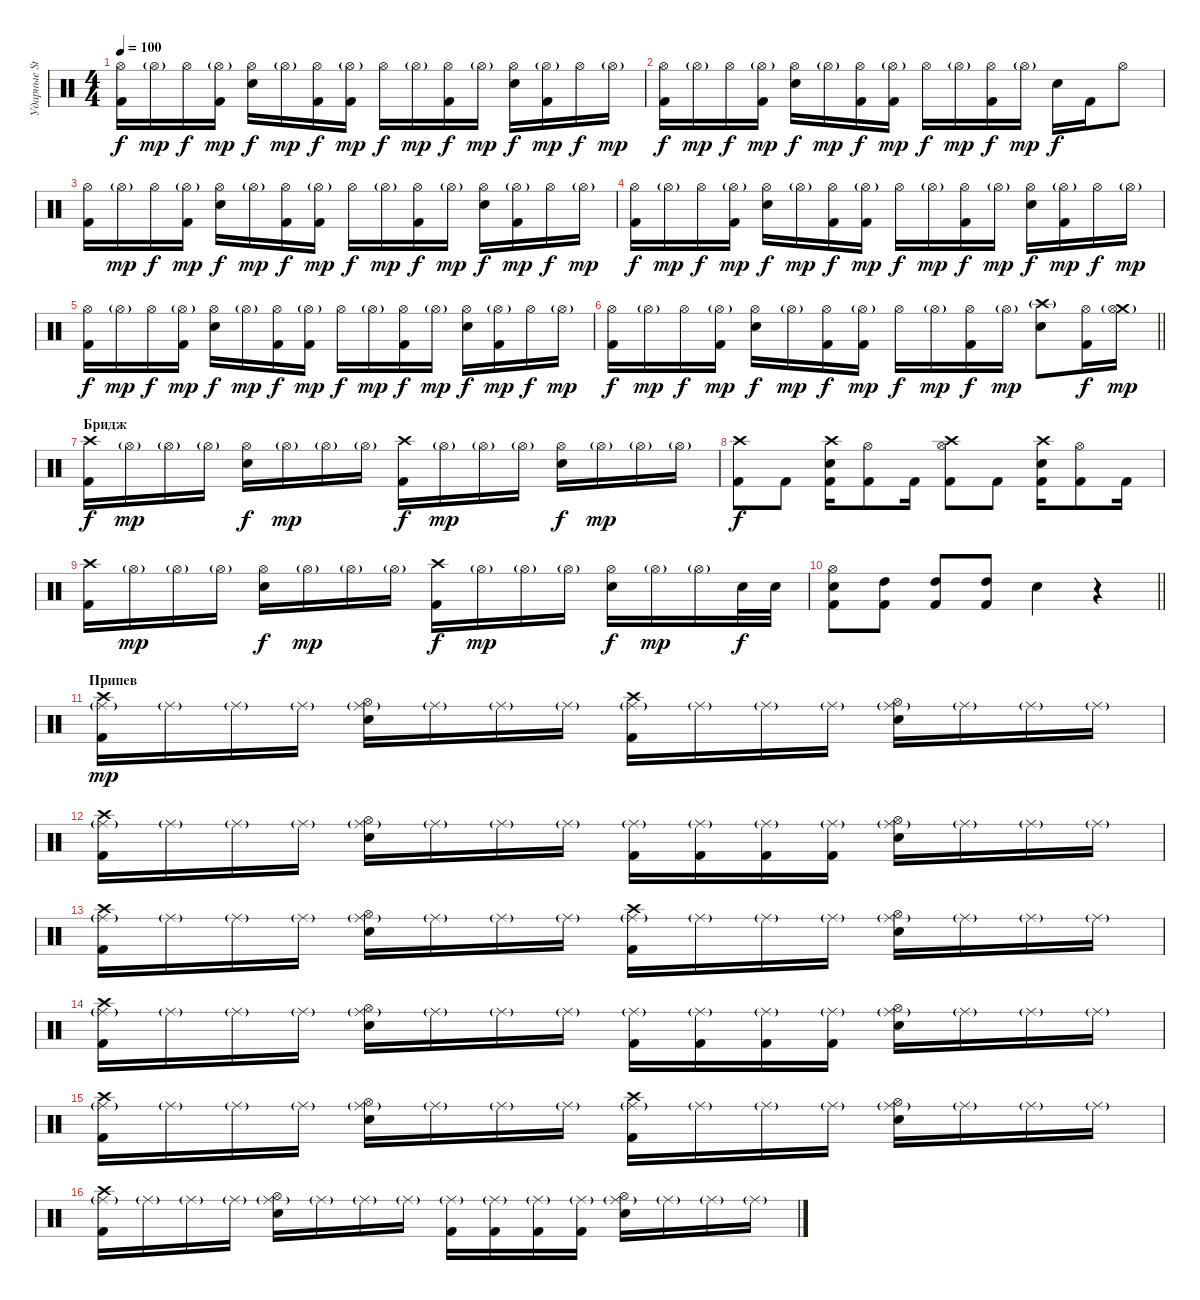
\track ("Ударные Stewart" "Ударные St") {instrument percussion}
\staff {score}
\articulation defaults
\ts (4 4)
\tempo 100
\clef neutral
\ks c
("Hi-Hat (open)" "Kick (hit) 2").16{dy f} "Hi-Hat (open)"{g}.16{dy mp} "Hi-Hat (open)".16{dy f} ("Hi-Hat (open)"{g} "Kick (hit) 2").16{dy mp} ("Hi-Hat (open)" "Electric Snare (hit)").16{dy f} "Hi-Hat (open)"{g}.16{dy mp} ("Hi-Hat (open)" "Kick (hit) 2").16{dy f} ("Hi-Hat (open)"{g} "Kick (hit) 2").16{dy mp} "Hi-Hat (open)".16{dy f} "Hi-Hat (open)"{g}.16{dy mp} ("Hi-Hat (open)" "Kick (hit) 2").16{dy f} "Hi-Hat (open)"{g}.16{dy mp} ("Hi-Hat (open)" "Electric Snare (hit)").16{dy f} ("Hi-Hat (open)"{g} "Kick (hit) 2").16{dy mp} "Hi-Hat (open)".16{dy f} "Hi-Hat (open)"{g}.16{dy mp} |
("Hi-Hat (open)" "Kick (hit) 2").16{dy f} "Hi-Hat (open)"{g}.16{dy mp} "Hi-Hat (open)".16{dy f} ("Hi-Hat (open)"{g} "Kick (hit) 2").16{dy mp} ("Hi-Hat (open)" "Electric Snare (hit)").16{dy f} "Hi-Hat (open)"{g}.16{dy mp} ("Hi-Hat (open)" "Kick (hit) 2").16{dy f} ("Hi-Hat (open)"{g} "Kick (hit) 2").16{dy mp} "Hi-Hat (open)".16{dy f} "Hi-Hat (open)"{g}.16{dy mp} ("Hi-Hat (open)" "Kick (hit) 2").16{dy f} "Hi-Hat (open)"{g}.16{dy mp} "Electric Snare (hit)".16{dy f} "Kick (hit) 2".16 "Hi-Hat (open)".8 |
("Hi-Hat (open)" "Kick (hit) 2").16 "Hi-Hat (open)"{g}.16{dy mp} "Hi-Hat (open)".16{dy f} ("Hi-Hat (open)"{g} "Kick (hit) 2").16{dy mp} ("Hi-Hat (open)" "Electric Snare (hit)").16{dy f} "Hi-Hat (open)"{g}.16{dy mp} ("Hi-Hat (open)" "Kick (hit) 2").16{dy f} ("Hi-Hat (open)"{g} "Kick (hit) 2").16{dy mp} "Hi-Hat (open)".16{dy f} "Hi-Hat (open)"{g}.16{dy mp} ("Hi-Hat (open)" "Kick (hit) 2").16{dy f} "Hi-Hat (open)"{g}.16{dy mp} ("Hi-Hat (open)" "Electric Snare (hit)").16{dy f} ("Hi-Hat (open)"{g} "Kick (hit) 2").16{dy mp} "Hi-Hat (open)".16{dy f} "Hi-Hat (open)"{g}.16{dy mp} |
("Hi-Hat (open)" "Kick (hit) 2").16{dy f} "Hi-Hat (open)"{g}.16{dy mp} "Hi-Hat (open)".16{dy f} ("Hi-Hat (open)"{g} "Kick (hit) 2").16{dy mp} ("Hi-Hat (open)" "Electric Snare (hit)").16{dy f} "Hi-Hat (open)"{g}.16{dy mp} ("Hi-Hat (open)" "Kick (hit) 2").16{dy f} ("Hi-Hat (open)"{g} "Kick (hit) 2").16{dy mp} "Hi-Hat (open)".16{dy f} "Hi-Hat (open)"{g}.16{dy mp} ("Hi-Hat (open)" "Kick (hit) 2").16{dy f} "Hi-Hat (open)"{g}.16{dy mp} ("Hi-Hat (open)" "Electric Snare (hit)").16{dy f} ("Hi-Hat (open)"{g} "Kick (hit) 2").16{dy mp} "Hi-Hat (open)".16{dy f} "Hi-Hat (open)"{g}.16{dy mp} |
("Hi-Hat (open)" "Kick (hit) 2").16{dy f} "Hi-Hat (open)"{g}.16{dy mp} "Hi-Hat (open)".16{dy f} ("Hi-Hat (open)"{g} "Kick (hit) 2").16{dy mp} ("Hi-Hat (open)" "Electric Snare (hit)").16{dy f} "Hi-Hat (open)"{g}.16{dy mp} ("Hi-Hat (open)" "Kick (hit) 2").16{dy f} ("Hi-Hat (open)"{g} "Kick (hit) 2").16{dy mp} "Hi-Hat (open)".16{dy f} "Hi-Hat (open)"{g}.16{dy mp} ("Hi-Hat (open)" "Kick (hit) 2").16{dy f} "Hi-Hat (open)"{g}.16{dy mp} ("Hi-Hat (open)" "Electric Snare (hit)").16{dy f} ("Hi-Hat (open)"{g} "Kick (hit) 2").16{dy mp} "Hi-Hat (open)".16{dy f} "Hi-Hat (open)"{g}.16{dy mp} |
\barLineRight lightlight
("Hi-Hat (open)" "Kick (hit) 2").16{dy f} "Hi-Hat (open)"{g}.16{dy mp} "Hi-Hat (open)".16{dy f} ("Hi-Hat (open)"{g} "Kick (hit) 2").16{dy mp} ("Hi-Hat (open)" "Electric Snare (hit)").16{dy f} "Hi-Hat (open)"{g}.16{dy mp} ("Hi-Hat (open)" "Kick (hit) 2").16{dy f} ("Hi-Hat (open)"{g} "Kick (hit) 2").16{dy mp} "Hi-Hat (open)".16{dy f} "Hi-Hat (open)"{g}.16{dy mp} ("Hi-Hat (open)" "Kick (hit) 2").16{dy f} "Hi-Hat (open)"{g}.16{dy mp} ("Crash high (hit)"{g} "Electric Snare (hit)").8 ("Hi-Hat (open)" "Kick (hit) 2").16{dy f} ("Crash medium (hit)"{g} "Hi-Hat (open)"{g}).16{dy mp} |
\section ("" "Бридж")
("Crash high (hit)" "Kick (hit) 2").16{dy f} "Hi-Hat (open)"{g}.16{dy mp} "Hi-Hat (open)"{g}.16 "Hi-Hat (open)"{g}.16 ("Hi-Hat (open)" "Electric Snare (hit)").16{dy f} "Hi-Hat (open)"{g}.16{dy mp} "Hi-Hat (open)"{g}.16 "Hi-Hat (open)"{g}.16 ("Crash high (hit)" "Kick (hit) 2").16{dy f} "Hi-Hat (open)"{g}.16{dy mp} "Hi-Hat (open)"{g}.16 "Hi-Hat (open)"{g}.16 ("Hi-Hat (open)" "Electric Snare (hit)").16{dy f} "Hi-Hat (open)"{g}.16{dy mp} "Hi-Hat (open)"{g}.16 "Hi-Hat (open)"{g}.16 |
("Crash high (hit)" "Kick (hit) 2").8{dy f} "Kick (hit) 2".8 ("Crash high (hit)" "Electric Snare (hit)" "Kick (hit) 2").16 ("Hi-Hat (open)" "Kick (hit) 2").8 "Kick (hit) 2".16 ("Crash high (hit)" "Hi-Hat (open)" "Kick (hit) 2").8 "Kick (hit) 2".8 ("Crash high (hit)" "Electric Snare (hit)" "Kick (hit) 2").16 ("Hi-Hat (open)" "Kick (hit) 2").8 "Kick (hit) 2".16 |
("Crash high (hit)" "Kick (hit) 2").16 "Hi-Hat (open)"{g}.16{dy mp} "Hi-Hat (open)"{g}.16 "Hi-Hat (open)"{g}.16 ("Hi-Hat (open)" "Electric Snare (hit)").16{dy f} "Hi-Hat (open)"{g}.16{dy mp} "Hi-Hat (open)"{g}.16 "Hi-Hat (open)"{g}.16 ("Crash high (hit)" "Kick (hit) 2").16{dy f} "Hi-Hat (open)"{g}.16{dy mp} "Hi-Hat (open)"{g}.16 "Hi-Hat (open)"{g}.16 ("Hi-Hat (open)" "Electric Snare (hit)").16{dy f} "Hi-Hat (open)"{g}.16{dy mp} "Hi-Hat (open)"{g}.16 "Electric Snare (hit)".32{dy f} "Electric Snare (hit)".32 |
\barLineRight lightlight
("Hi-Hat (open)" "Electric Snare (hit)" "Kick (hit) 2").8 ("High Tom (hit)" "Kick (hit) 2").8 ("High Tom (hit)" "Kick (hit) 2").8 ("High Tom (hit)" "Kick (hit) 2").8 "Electric Snare (hit)".4 r.4 |
\section ("" "Припев")
("Crash high (hit)" "Ride (middle)"{g} "Kick (hit) 2").16{dy mp} "Ride (middle)"{g}.16 "Ride (middle)"{g}.16 "Ride (middle)"{g}.16 ("Ride (middle)"{g} "Hi-Hat (open)" "Electric Snare (hit)").16 "Ride (middle)"{g}.16 "Ride (middle)"{g}.16 "Ride (middle)"{g}.16 ("Crash high (hit)" "Ride (middle)"{g} "Kick (hit) 2").16 "Ride (middle)"{g}.16 "Ride (middle)"{g}.16 "Ride (middle)"{g}.16 ("Ride (middle)"{g} "Hi-Hat (open)" "Electric Snare (hit)").16 "Ride (middle)"{g}.16 "Ride (middle)"{g}.16 "Ride (middle)"{g}.16 |
("Crash high (hit)" "Ride (middle)"{g} "Kick (hit) 2").16 "Ride (middle)"{g}.16 "Ride (middle)"{g}.16 "Ride (middle)"{g}.16 ("Ride (middle)"{g} "Hi-Hat (open)" "Electric Snare (hit)").16 "Ride (middle)"{g}.16 "Ride (middle)"{g}.16 "Ride (middle)"{g}.16 ("Ride (middle)"{g} "Kick (hit) 2").16 ("Ride (middle)"{g} "Kick (hit) 2").16 ("Ride (middle)"{g} "Kick (hit) 2").16 ("Ride (middle)"{g} "Kick (hit) 2").16 ("Ride (middle)"{g} "Hi-Hat (open)" "Electric Snare (hit)").16 "Ride (middle)"{g}.16 "Ride (middle)"{g}.16 "Ride (middle)"{g}.16 |
("Crash high (hit)" "Ride (middle)"{g} "Kick (hit) 2").16 "Ride (middle)"{g}.16 "Ride (middle)"{g}.16 "Ride (middle)"{g}.16 ("Ride (middle)"{g} "Hi-Hat (open)" "Electric Snare (hit)").16 "Ride (middle)"{g}.16 "Ride (middle)"{g}.16 "Ride (middle)"{g}.16 ("Crash high (hit)" "Ride (middle)"{g} "Kick (hit) 2").16 "Ride (middle)"{g}.16 "Ride (middle)"{g}.16 "Ride (middle)"{g}.16 ("Ride (middle)"{g} "Hi-Hat (open)" "Electric Snare (hit)").16 "Ride (middle)"{g}.16 "Ride (middle)"{g}.16 "Ride (middle)"{g}.16 |
("Crash high (hit)" "Ride (middle)"{g} "Kick (hit) 2").16 "Ride (middle)"{g}.16 "Ride (middle)"{g}.16 "Ride (middle)"{g}.16 ("Ride (middle)"{g} "Hi-Hat (open)" "Electric Snare (hit)").16 "Ride (middle)"{g}.16 "Ride (middle)"{g}.16 "Ride (middle)"{g}.16 ("Ride (middle)"{g} "Kick (hit) 2").16 ("Ride (middle)"{g} "Kick (hit) 2").16 ("Ride (middle)"{g} "Kick (hit) 2").16 ("Ride (middle)"{g} "Kick (hit) 2").16 ("Ride (middle)"{g} "Hi-Hat (open)" "Electric Snare (hit)").16 "Ride (middle)"{g}.16 "Ride (middle)"{g}.16 "Ride (middle)"{g}.16 |
("Crash high (hit)" "Ride (middle)"{g} "Kick (hit) 2").16 "Ride (middle)"{g}.16 "Ride (middle)"{g}.16 "Ride (middle)"{g}.16 ("Ride (middle)"{g} "Hi-Hat (open)" "Electric Snare (hit)").16 "Ride (middle)"{g}.16 "Ride (middle)"{g}.16 "Ride (middle)"{g}.16 ("Crash high (hit)" "Ride (middle)"{g} "Kick (hit) 2").16 "Ride (middle)"{g}.16 "Ride (middle)"{g}.16 "Ride (middle)"{g}.16 ("Ride (middle)"{g} "Hi-Hat (open)" "Electric Snare (hit)").16 "Ride (middle)"{g}.16 "Ride (middle)"{g}.16 "Ride (middle)"{g}.16 |
("Crash high (hit)" "Ride (middle)"{g} "Kick (hit) 2").16 "Ride (middle)"{g}.16 "Ride (middle)"{g}.16 "Ride (middle)"{g}.16 ("Ride (middle)"{g} "Hi-Hat (open)" "Electric Snare (hit)").16 "Ride (middle)"{g}.16 "Ride (middle)"{g}.16 "Ride (middle)"{g}.16 ("Ride (middle)"{g} "Kick (hit) 2").16 ("Ride (middle)"{g} "Kick (hit) 2").16 ("Ride (middle)"{g} "Kick (hit) 2").16 ("Ride (middle)"{g} "Kick (hit) 2").16 ("Ride (middle)"{g} "Hi-Hat (open)" "Electric Snare (hit)").16 "Ride (middle)"{g}.16 "Ride (middle)"{g}.16 "Ride (middle)"{g}.16
